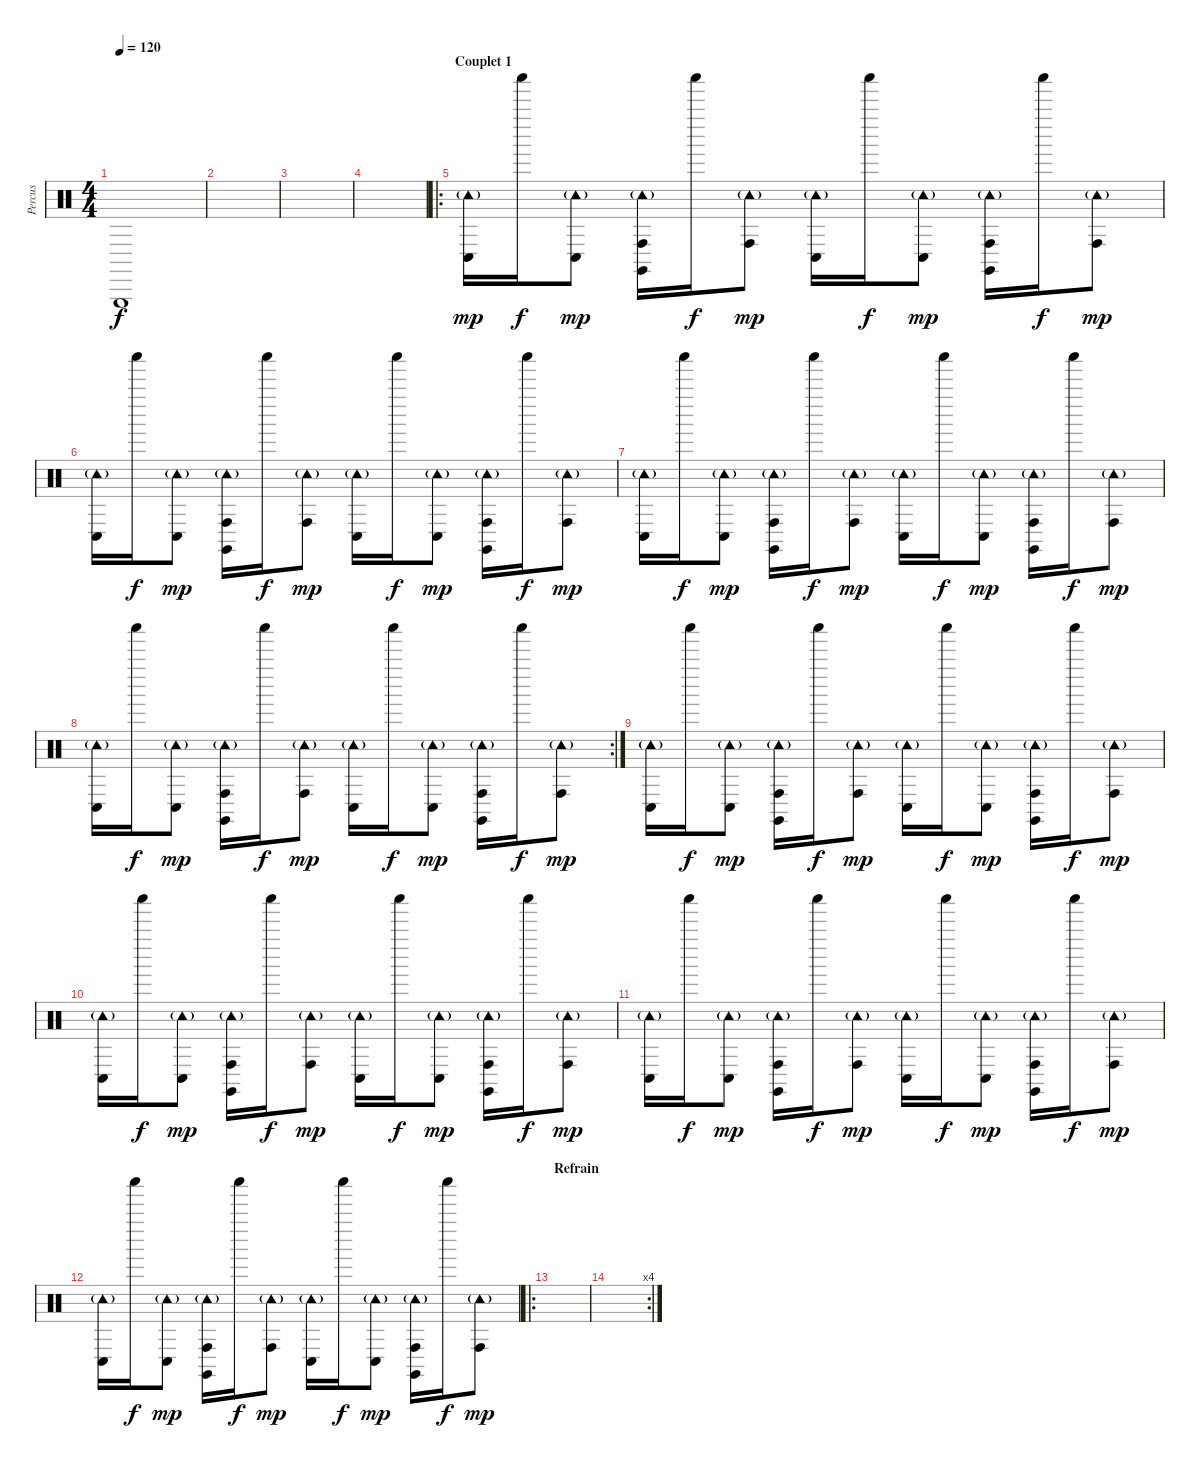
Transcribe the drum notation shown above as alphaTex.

\track ("Percus" "Percus") {instrument percussion}
\staff {score}
\articulation defaults
\ts (4 4)
\section ("" "")
\tempo 120
\clef neutral
\ks c "Triangle (hit)".1{dy f}
|
|
|
|
\ro
\section ("" "Couplet 1")
("Conga low (hit)" "Tambourine (hit)"{g}).16{dy mp} "Shaker (hit)".16{dy f} ("Conga low (hit)" "Tambourine (hit)"{g}).8{dy mp} ("Conga high (hit)" "Claves (hit)" "Tambourine (hit)"{g}).16 "Shaker (hit)".16{dy f} ("Conga high (hit)" "Tambourine (hit)"{g}).8{dy mp} ("Conga low (hit)" "Tambourine (hit)"{g}).16 "Shaker (hit)".16{dy f} ("Conga low (hit)" "Tambourine (hit)"{g}).8{dy mp} ("Conga high (hit)" "Claves (hit)" "Tambourine (hit)"{g}).16 "Shaker (hit)".16{dy f} ("Conga high (hit)" "Tambourine (hit)"{g}).8{dy mp} |
("Conga low (hit)" "Tambourine (hit)"{g}).16 "Shaker (hit)".16{dy f} ("Conga low (hit)" "Tambourine (hit)"{g}).8{dy mp} ("Conga high (hit)" "Claves (hit)" "Tambourine (hit)"{g}).16 "Shaker (hit)".16{dy f} ("Conga high (hit)" "Tambourine (hit)"{g}).8{dy mp} ("Conga low (hit)" "Tambourine (hit)"{g}).16 "Shaker (hit)".16{dy f} ("Conga low (hit)" "Tambourine (hit)"{g}).8{dy mp} ("Conga high (hit)" "Claves (hit)" "Tambourine (hit)"{g}).16 "Shaker (hit)".16{dy f} ("Conga high (hit)" "Tambourine (hit)"{g}).8{dy mp} |
("Conga low (hit)" "Tambourine (hit)"{g}).16 "Shaker (hit)".16{dy f} ("Conga low (hit)" "Tambourine (hit)"{g}).8{dy mp} ("Conga high (hit)" "Claves (hit)" "Tambourine (hit)"{g}).16 "Shaker (hit)".16{dy f} ("Conga high (hit)" "Tambourine (hit)"{g}).8{dy mp} ("Conga low (hit)" "Tambourine (hit)"{g}).16 "Shaker (hit)".16{dy f} ("Conga low (hit)" "Tambourine (hit)"{g}).8{dy mp} ("Conga high (hit)" "Claves (hit)" "Tambourine (hit)"{g}).16 "Shaker (hit)".16{dy f} ("Conga high (hit)" "Tambourine (hit)"{g}).8{dy mp} |
\rc 2
("Conga low (hit)" "Tambourine (hit)"{g}).16 "Shaker (hit)".16{dy f} ("Conga low (hit)" "Tambourine (hit)"{g}).8{dy mp} ("Conga high (hit)" "Claves (hit)" "Tambourine (hit)"{g}).16 "Shaker (hit)".16{dy f} ("Conga high (hit)" "Tambourine (hit)"{g}).8{dy mp} ("Conga low (hit)" "Tambourine (hit)"{g}).16 "Shaker (hit)".16{dy f} ("Conga low (hit)" "Tambourine (hit)"{g}).8{dy mp} ("Conga high (hit)" "Claves (hit)" "Tambourine (hit)"{g}).16 "Shaker (hit)".16{dy f} ("Conga high (hit)" "Tambourine (hit)"{g}).8{dy mp} |
("Conga low (hit)" "Tambourine (hit)"{g}).16 "Shaker (hit)".16{dy f} ("Conga low (hit)" "Tambourine (hit)"{g}).8{dy mp} ("Conga high (hit)" "Claves (hit)" "Tambourine (hit)"{g}).16 "Shaker (hit)".16{dy f} ("Conga high (hit)" "Tambourine (hit)"{g}).8{dy mp} ("Conga low (hit)" "Tambourine (hit)"{g}).16 "Shaker (hit)".16{dy f} ("Conga low (hit)" "Tambourine (hit)"{g}).8{dy mp} ("Conga high (hit)" "Claves (hit)" "Tambourine (hit)"{g}).16 "Shaker (hit)".16{dy f} ("Conga high (hit)" "Tambourine (hit)"{g}).8{dy mp} |
("Conga low (hit)" "Tambourine (hit)"{g}).16 "Shaker (hit)".16{dy f} ("Conga low (hit)" "Tambourine (hit)"{g}).8{dy mp} ("Conga high (hit)" "Claves (hit)" "Tambourine (hit)"{g}).16 "Shaker (hit)".16{dy f} ("Conga high (hit)" "Tambourine (hit)"{g}).8{dy mp} ("Conga low (hit)" "Tambourine (hit)"{g}).16 "Shaker (hit)".16{dy f} ("Conga low (hit)" "Tambourine (hit)"{g}).8{dy mp} ("Conga high (hit)" "Claves (hit)" "Tambourine (hit)"{g}).16 "Shaker (hit)".16{dy f} ("Conga high (hit)" "Tambourine (hit)"{g}).8{dy mp} |
("Conga low (hit)" "Tambourine (hit)"{g}).16 "Shaker (hit)".16{dy f} ("Conga low (hit)" "Tambourine (hit)"{g}).8{dy mp} ("Conga high (hit)" "Claves (hit)" "Tambourine (hit)"{g}).16 "Shaker (hit)".16{dy f} ("Conga high (hit)" "Tambourine (hit)"{g}).8{dy mp} ("Conga low (hit)" "Tambourine (hit)"{g}).16 "Shaker (hit)".16{dy f} ("Conga low (hit)" "Tambourine (hit)"{g}).8{dy mp} ("Conga high (hit)" "Claves (hit)" "Tambourine (hit)"{g}).16 "Shaker (hit)".16{dy f} ("Conga high (hit)" "Tambourine (hit)"{g}).8{dy mp} |
("Conga low (hit)" "Tambourine (hit)"{g}).16 "Shaker (hit)".16{dy f} ("Conga low (hit)" "Tambourine (hit)"{g}).8{dy mp} ("Conga high (hit)" "Claves (hit)" "Tambourine (hit)"{g}).16 "Shaker (hit)".16{dy f} ("Conga high (hit)" "Tambourine (hit)"{g}).8{dy mp} ("Conga low (hit)" "Tambourine (hit)"{g}).16 "Shaker (hit)".16{dy f} ("Conga low (hit)" "Tambourine (hit)"{g}).8{dy mp} ("Conga high (hit)" "Claves (hit)" "Tambourine (hit)"{g}).16 "Shaker (hit)".16{dy f} ("Conga high (hit)" "Tambourine (hit)"{g}).8{dy mp} |
\ro
\section ("" "Refrain")
|
\rc 4
